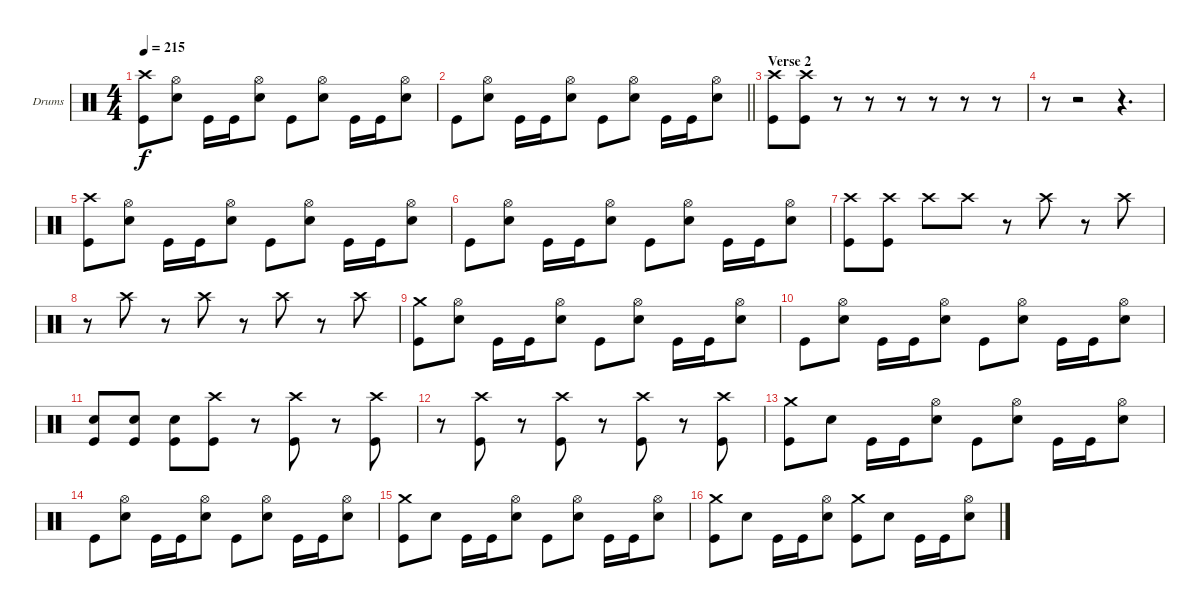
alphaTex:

\bracketExtendMode groupsimilarinstruments
\firstSystemTrackNameOrientation horizontal
\otherSystemsTrackNameOrientation horizontal
\track ("Dave McClain" "Drums") {instrument percussion}
\staff {score}
\articulation defaults
\ts (4 4)
\tempo 215
\clef neutral
\ks c
("Crash high (hit)" "Kick (hit)").8{dy f} ("Hi-Hat (open)" "Snare (hit) 2").8 "Kick (hit)".16 "Kick (hit)".16 ("Hi-Hat (open)" "Snare (hit) 2").8 "Kick (hit)".8 ("Hi-Hat (open)" "Snare (hit) 2").8 "Kick (hit)".16 "Kick (hit)".16 ("Hi-Hat (open)" "Snare (hit) 2").8 |
\barLineRight lightlight "Kick (hit)".8
("Hi-Hat (open)" "Snare (hit) 2").8 "Kick (hit)".16 "Kick (hit)".16 ("Hi-Hat (open)" "Snare (hit) 2").8 "Kick (hit)".8 ("Hi-Hat (open)" "Snare (hit) 2").8 "Kick (hit)".16 "Kick (hit)".16 ("Hi-Hat (open)" "Snare (hit) 2").8 |
\section ("" "Verse 2")
("Crash high (hit)" "Kick (hit)").8 ("Crash high (hit)" "Kick (hit)").8 r.8 r.8 r.8 r.8 r.8 r.8 |
r.8 r.2 r.4{d} |
("Crash high (hit)" "Kick (hit)").8 ("Hi-Hat (open)" "Snare (hit) 2").8 "Kick (hit)".16 "Kick (hit)".16 ("Hi-Hat (open)" "Snare (hit) 2").8 "Kick (hit)".8 ("Hi-Hat (open)" "Snare (hit) 2").8 "Kick (hit)".16 "Kick (hit)".16 ("Hi-Hat (open)" "Snare (hit) 2").8 |
"Kick (hit)".8 ("Hi-Hat (open)" "Snare (hit) 2").8 "Kick (hit)".16 "Kick (hit)".16 ("Hi-Hat (open)" "Snare (hit) 2").8 "Kick (hit)".8 ("Hi-Hat (open)" "Snare (hit) 2").8 "Kick (hit)".16 "Kick (hit)".16 ("Hi-Hat (open)" "Snare (hit) 2").8 |
("Crash high (hit)" "Kick (hit)").8 ("Crash high (hit)" "Kick (hit)").8 "Crash high (hit)".8 "Crash high (hit)".8 r.8 "Crash high (hit)".8 r.8 "Crash high (hit)".8 |
r.8 "Crash high (hit)".8 r.8 "Crash high (hit)".8 r.8 "Crash high (hit)".8 r.8 "Crash high (hit)".8 |
("Crash medium (hit)" "Kick (hit)").8 ("Hi-Hat (open)" "Snare (hit) 2").8 "Kick (hit)".16 "Kick (hit)".16 ("Hi-Hat (open)" "Snare (hit) 2").8 "Kick (hit)".8 ("Hi-Hat (open)" "Snare (hit) 2").8 "Kick (hit)".16 "Kick (hit)".16 ("Hi-Hat (open)" "Snare (hit) 2").8 |
"Kick (hit)".8 ("Hi-Hat (open)" "Snare (hit) 2").8 "Kick (hit)".16 "Kick (hit)".16 ("Hi-Hat (open)" "Snare (hit) 2").8 "Kick (hit)".8 ("Hi-Hat (open)" "Snare (hit) 2").8 "Kick (hit)".16 "Kick (hit)".16 ("Hi-Hat (open)" "Snare (hit) 2").8 |
("Snare (hit) 2" "Kick (hit)").8 ("Snare (hit) 2" "Kick (hit)").8 ("Snare (hit) 2" "Kick (hit)").8 ("Crash high (hit)" "Kick (hit)").8 r.8 ("Crash high (hit)" "Kick (hit)").8 r.8 ("Crash high (hit)" "Kick (hit)").8 |
r.8 ("Crash high (hit)" "Kick (hit)").8 r.8 ("Crash high (hit)" "Kick (hit)").8 r.8 ("Crash high (hit)" "Kick (hit)").8 r.8 ("Crash high (hit)" "Kick (hit)").8 |
("Crash medium (hit)" "Kick (hit)").8 "Snare (hit) 2".8 "Kick (hit)".16 "Kick (hit)".16 ("Hi-Hat (open)" "Snare (hit) 2").8 "Kick (hit)".8 ("Hi-Hat (open)" "Snare (hit) 2").8 "Kick (hit)".16 "Kick (hit)".16 ("Hi-Hat (open)" "Snare (hit) 2").8 |
"Kick (hit)".8 ("Hi-Hat (open)" "Snare (hit) 2").8 "Kick (hit)".16 "Kick (hit)".16 ("Hi-Hat (open)" "Snare (hit) 2").8 "Kick (hit)".8 ("Hi-Hat (open)" "Snare (hit) 2").8 "Kick (hit)".16 "Kick (hit)".16 ("Hi-Hat (open)" "Snare (hit) 2").8 |
("Crash medium (hit)" "Kick (hit)").8 "Snare (hit) 2".8 "Kick (hit)".16 "Kick (hit)".16 ("Hi-Hat (open)" "Snare (hit) 2").8 "Kick (hit)".8 ("Hi-Hat (open)" "Snare (hit) 2").8 "Kick (hit)".16 "Kick (hit)".16 ("Hi-Hat (open)" "Snare (hit) 2").8 |
("Crash medium (hit)" "Kick (hit)").8 "Snare (hit) 2".8 "Kick (hit)".16 "Kick (hit)".16 ("Hi-Hat (open)" "Snare (hit) 2").8 ("Crash medium (hit)" "Kick (hit)").8 "Snare (hit) 2".8 "Kick (hit)".16 "Kick (hit)".16 ("Hi-Hat (open)" "Snare (hit) 2").8
